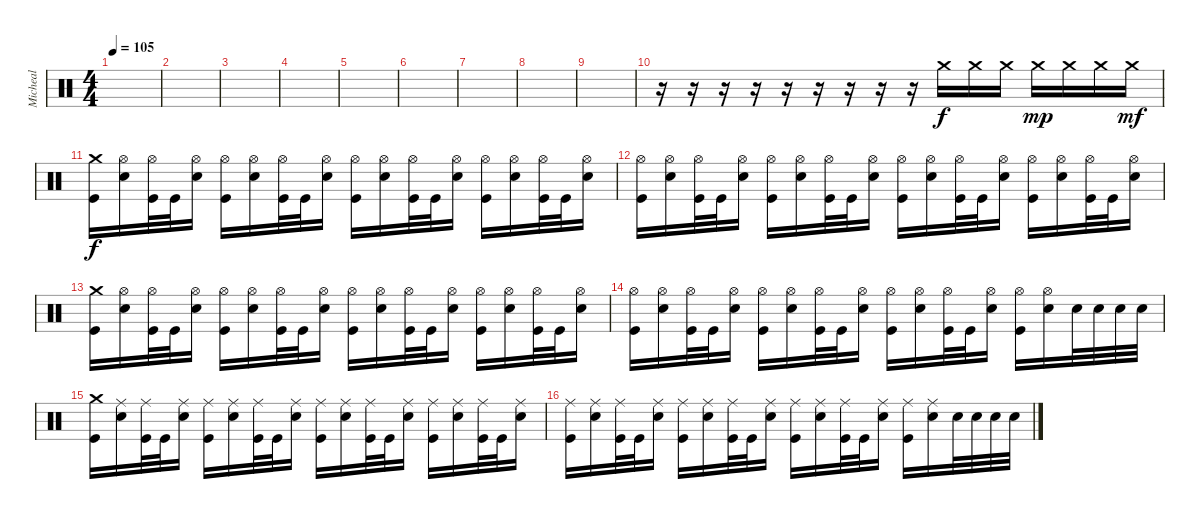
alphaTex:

\track ("Micheal" "Micheal") {instrument percussion}
\staff {score}
\articulation defaults
\ts (4 4)
\tempo 105
\clef neutral
\ks c
|
|
|
|
|
|
|
|
|
r.16 r.16 r.16 r.16 r.16 r.16 r.16 r.16 r.16 "Crash medium (hit)".16 "Crash medium (hit)".16 "Crash medium (hit)".16 "Crash medium (hit)".16{dy mp} "Crash medium (hit)".16 "Crash medium (hit)".16 "Crash medium (hit)".16{dy mf} |
("Crash medium (hit)" "Kick (hit)").16{dy f} ("Hi-Hat (open)" "Electric Snare (hit)").16 ("Hi-Hat (open)" "Kick (hit)").32 "Kick (hit)".32 ("Hi-Hat (open)" "Electric Snare (hit)").16 ("Hi-Hat (open)" "Kick (hit)").16 ("Hi-Hat (open)" "Electric Snare (hit)").16 ("Hi-Hat (open)" "Kick (hit)").32 "Kick (hit)".32 ("Hi-Hat (open)" "Electric Snare (hit)").16 ("Hi-Hat (open)" "Kick (hit)").16 ("Hi-Hat (open)" "Electric Snare (hit)").16 ("Hi-Hat (open)" "Kick (hit)").32 "Kick (hit)".32 ("Hi-Hat (open)" "Electric Snare (hit)").16 ("Hi-Hat (open)" "Kick (hit)").16 ("Hi-Hat (open)" "Electric Snare (hit)").16 ("Hi-Hat (open)" "Kick (hit)").32 "Kick (hit)".32 ("Hi-Hat (open)" "Electric Snare (hit)").16 |
("Hi-Hat (open)" "Kick (hit)").16 ("Hi-Hat (open)" "Electric Snare (hit)").16 ("Hi-Hat (open)" "Kick (hit)").32 "Kick (hit)".32 ("Hi-Hat (open)" "Electric Snare (hit)").16 ("Hi-Hat (open)" "Kick (hit)").16 ("Hi-Hat (open)" "Electric Snare (hit)").16 ("Hi-Hat (open)" "Kick (hit)").32 "Kick (hit)".32 ("Hi-Hat (open)" "Electric Snare (hit)").16 ("Hi-Hat (open)" "Kick (hit)").16 ("Hi-Hat (open)" "Electric Snare (hit)").16 ("Hi-Hat (open)" "Kick (hit)").32 "Kick (hit)".32 ("Hi-Hat (open)" "Electric Snare (hit)").16 ("Hi-Hat (open)" "Kick (hit)").16 ("Hi-Hat (open)" "Electric Snare (hit)").16 ("Hi-Hat (open)" "Kick (hit)").32 "Kick (hit)".32 ("Hi-Hat (open)" "Electric Snare (hit)").16 |
("Crash medium (hit)" "Kick (hit)").16 ("Hi-Hat (open)" "Electric Snare (hit)").16 ("Hi-Hat (open)" "Kick (hit)").32 "Kick (hit)".32 ("Hi-Hat (open)" "Electric Snare (hit)").16 ("Hi-Hat (open)" "Kick (hit)").16 ("Hi-Hat (open)" "Electric Snare (hit)").16 ("Hi-Hat (open)" "Kick (hit)").32 "Kick (hit)".32 ("Hi-Hat (open)" "Electric Snare (hit)").16 ("Hi-Hat (open)" "Kick (hit)").16 ("Hi-Hat (open)" "Electric Snare (hit)").16 ("Hi-Hat (open)" "Kick (hit)").32 "Kick (hit)".32 ("Hi-Hat (open)" "Electric Snare (hit)").16 ("Hi-Hat (open)" "Kick (hit)").16 ("Hi-Hat (open)" "Electric Snare (hit)").16 ("Hi-Hat (open)" "Kick (hit)").32 "Kick (hit)".32 ("Hi-Hat (open)" "Electric Snare (hit)").16 |
("Hi-Hat (open)" "Kick (hit)").16 ("Hi-Hat (open)" "Electric Snare (hit)").16 ("Hi-Hat (open)" "Kick (hit)").32 "Kick (hit)".32 ("Hi-Hat (open)" "Electric Snare (hit)").16 ("Hi-Hat (open)" "Kick (hit)").16 ("Hi-Hat (open)" "Electric Snare (hit)").16 ("Hi-Hat (open)" "Kick (hit)").32 "Kick (hit)".32 ("Hi-Hat (open)" "Electric Snare (hit)").16 ("Hi-Hat (open)" "Kick (hit)").16 ("Hi-Hat (open)" "Electric Snare (hit)").16 ("Hi-Hat (open)" "Kick (hit)").32 "Kick (hit)".32 ("Hi-Hat (open)" "Electric Snare (hit)").16 ("Hi-Hat (open)" "Kick (hit)").16 ("Hi-Hat (open)" "Electric Snare (hit)").16 "Electric Snare (hit)".32 "Electric Snare (hit)".32 "Electric Snare (hit)".32 "Electric Snare (hit)".32 |
("Crash medium (hit)" "Kick (hit)").16 ("Ride (middle)" "Electric Snare (hit)").16 ("Ride (middle)" "Kick (hit)").32 "Kick (hit)".32 ("Ride (middle)" "Electric Snare (hit)").16 ("Ride (middle)" "Kick (hit)").16 ("Ride (middle)" "Electric Snare (hit)").16 ("Ride (middle)" "Kick (hit)").32 "Kick (hit)".32 ("Ride (middle)" "Electric Snare (hit)").16 ("Ride (middle)" "Kick (hit)").16 ("Ride (middle)" "Electric Snare (hit)").16 ("Ride (middle)" "Kick (hit)").32 "Kick (hit)".32 ("Ride (middle)" "Electric Snare (hit)").16 ("Ride (middle)" "Kick (hit)").16 ("Ride (middle)" "Electric Snare (hit)").16 ("Ride (middle)" "Kick (hit)").32 "Kick (hit)".32 ("Ride (middle)" "Electric Snare (hit)").16 |
("Ride (middle)" "Kick (hit)").16 ("Ride (middle)" "Electric Snare (hit)").16 ("Ride (middle)" "Kick (hit)").32 "Kick (hit)".32 ("Ride (middle)" "Electric Snare (hit)").16 ("Ride (middle)" "Kick (hit)").16 ("Ride (middle)" "Electric Snare (hit)").16 ("Ride (middle)" "Kick (hit)").32 "Kick (hit)".32 ("Ride (middle)" "Electric Snare (hit)").16 ("Ride (middle)" "Kick (hit)").16 ("Ride (middle)" "Electric Snare (hit)").16 ("Ride (middle)" "Kick (hit)").32 "Kick (hit)".32 ("Ride (middle)" "Electric Snare (hit)").16 ("Ride (middle)" "Kick (hit)").16 ("Ride (middle)" "Electric Snare (hit)").16 "Electric Snare (hit)".32 "Electric Snare (hit)".32 "Electric Snare (hit)".32 "Electric Snare (hit)".32
